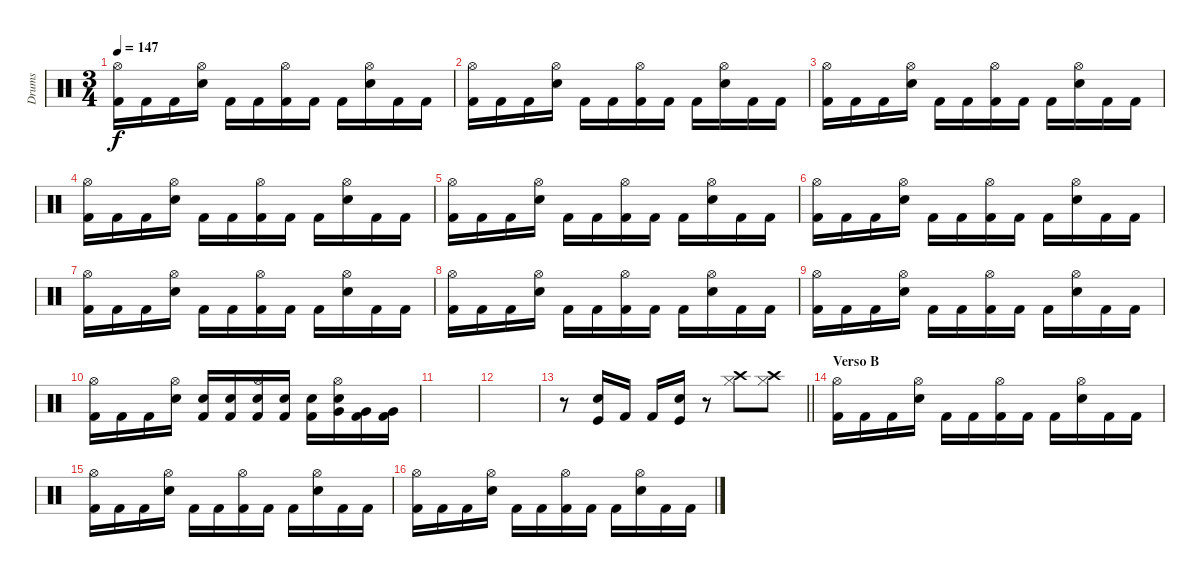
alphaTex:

\track ("Drums" "Drums") {instrument percussion}
\staff {score}
\articulation defaults
\ts (3 4)
\tempo 147
\clef neutral
\ks c
("Kick (hit) 2" "Hi-Hat (open)").16{dy f} "Kick (hit) 2".16 "Kick (hit) 2".16 ("Snare (hit) 2" "Hi-Hat (open)").16 "Kick (hit) 2".16 "Kick (hit) 2".16 ("Kick (hit) 2" "Hi-Hat (open)").16 "Kick (hit) 2".16 "Kick (hit) 2".16 ("Snare (hit) 2" "Hi-Hat (open)").16 "Kick (hit) 2".16 "Kick (hit) 2".16 |
("Kick (hit) 2" "Hi-Hat (open)").16 "Kick (hit) 2".16 "Kick (hit) 2".16 ("Snare (hit) 2" "Hi-Hat (open)").16 "Kick (hit) 2".16 "Kick (hit) 2".16 ("Kick (hit) 2" "Hi-Hat (open)").16 "Kick (hit) 2".16 "Kick (hit) 2".16 ("Snare (hit) 2" "Hi-Hat (open)").16 "Kick (hit) 2".16 "Kick (hit) 2".16 |
("Kick (hit) 2" "Hi-Hat (open)").16 "Kick (hit) 2".16 "Kick (hit) 2".16 ("Snare (hit) 2" "Hi-Hat (open)").16 "Kick (hit) 2".16 "Kick (hit) 2".16 ("Kick (hit) 2" "Hi-Hat (open)").16 "Kick (hit) 2".16 "Kick (hit) 2".16 ("Snare (hit) 2" "Hi-Hat (open)").16 "Kick (hit) 2".16 "Kick (hit) 2".16 |
("Kick (hit) 2" "Hi-Hat (open)").16 "Kick (hit) 2".16 "Kick (hit) 2".16 ("Snare (hit) 2" "Hi-Hat (open)").16 "Kick (hit) 2".16 "Kick (hit) 2".16 ("Kick (hit) 2" "Hi-Hat (open)").16 "Kick (hit) 2".16 "Kick (hit) 2".16 ("Snare (hit) 2" "Hi-Hat (open)").16 "Kick (hit) 2".16 "Kick (hit) 2".16 |
("Kick (hit) 2" "Hi-Hat (open)").16 "Kick (hit) 2".16 "Kick (hit) 2".16 ("Snare (hit) 2" "Hi-Hat (open)").16 "Kick (hit) 2".16 "Kick (hit) 2".16 ("Kick (hit) 2" "Hi-Hat (open)").16 "Kick (hit) 2".16 "Kick (hit) 2".16 ("Snare (hit) 2" "Hi-Hat (open)").16 "Kick (hit) 2".16 "Kick (hit) 2".16 |
("Kick (hit) 2" "Hi-Hat (open)").16 "Kick (hit) 2".16 "Kick (hit) 2".16 ("Snare (hit) 2" "Hi-Hat (open)").16 "Kick (hit) 2".16 "Kick (hit) 2".16 ("Kick (hit) 2" "Hi-Hat (open)").16 "Kick (hit) 2".16 "Kick (hit) 2".16 ("Snare (hit) 2" "Hi-Hat (open)").16 "Kick (hit) 2".16 "Kick (hit) 2".16 |
("Kick (hit) 2" "Hi-Hat (open)").16 "Kick (hit) 2".16 "Kick (hit) 2".16 ("Snare (hit) 2" "Hi-Hat (open)").16 "Kick (hit) 2".16 "Kick (hit) 2".16 ("Kick (hit) 2" "Hi-Hat (open)").16 "Kick (hit) 2".16 "Kick (hit) 2".16 ("Snare (hit) 2" "Hi-Hat (open)").16 "Kick (hit) 2".16 "Kick (hit) 2".16 |
("Kick (hit) 2" "Hi-Hat (open)").16 "Kick (hit) 2".16 "Kick (hit) 2".16 ("Snare (hit) 2" "Hi-Hat (open)").16 "Kick (hit) 2".16 "Kick (hit) 2".16 ("Kick (hit) 2" "Hi-Hat (open)").16 "Kick (hit) 2".16 "Kick (hit) 2".16 ("Snare (hit) 2" "Hi-Hat (open)").16 "Kick (hit) 2".16 "Kick (hit) 2".16 |
("Kick (hit) 2" "Hi-Hat (open)").16 "Kick (hit) 2".16 "Kick (hit) 2".16 ("Snare (hit) 2" "Hi-Hat (open)").16 "Kick (hit) 2".16 "Kick (hit) 2".16 ("Kick (hit) 2" "Hi-Hat (open)").16 "Kick (hit) 2".16 "Kick (hit) 2".16 ("Snare (hit) 2" "Hi-Hat (open)").16 "Kick (hit) 2".16 "Kick (hit) 2".16 |
("Kick (hit) 2" "Hi-Hat (open)").16 "Kick (hit) 2".16 "Kick (hit) 2".16 ("Snare (hit) 2" "Hi-Hat (open)").16 ("Kick (hit) 2" "Snare (hit) 2").16 ("Kick (hit) 2" "Snare (hit) 2").16 ("Kick (hit) 2" "Snare (hit) 2" "Hi-Hat (open)").16 ("Kick (hit) 2" "Snare (hit) 2").16 ("Kick (hit) 2" "Snare (hit) 2").16 ("Snare (hit) 2" "Very Low Tom (hit)" "Hi-Hat (open)").16 ("Kick (hit) 2" "Very Low Tom (hit)").16 ("Kick (hit) 2" "Very Low Tom (hit)").16 |
|
|
\barLineRight lightlight
r.8 ("Snare (hit) 2" "Kick (hit)").16 "Kick (hit) 2".16 "Kick (hit) 2".16 ("Snare (hit) 2" "Kick (hit)").16 r.8 ("Hi-Hat (closed)" "Crash high (hit)").8 ("Hi-Hat (closed)" "Crash high (hit)").8 |
\section ("" "Verso B")
("Kick (hit) 2" "Hi-Hat (open)").16 "Kick (hit) 2".16 "Kick (hit) 2".16 ("Snare (hit) 2" "Hi-Hat (open)").16 "Kick (hit) 2".16 "Kick (hit) 2".16 ("Kick (hit) 2" "Hi-Hat (open)").16 "Kick (hit) 2".16 "Kick (hit) 2".16 ("Snare (hit) 2" "Hi-Hat (open)").16 "Kick (hit) 2".16 "Kick (hit) 2".16 |
("Kick (hit) 2" "Hi-Hat (open)").16 "Kick (hit) 2".16 "Kick (hit) 2".16 ("Snare (hit) 2" "Hi-Hat (open)").16 "Kick (hit) 2".16 "Kick (hit) 2".16 ("Kick (hit) 2" "Hi-Hat (open)").16 "Kick (hit) 2".16 "Kick (hit) 2".16 ("Snare (hit) 2" "Hi-Hat (open)").16 "Kick (hit) 2".16 "Kick (hit) 2".16 |
("Kick (hit) 2" "Hi-Hat (open)").16 "Kick (hit) 2".16 "Kick (hit) 2".16 ("Snare (hit) 2" "Hi-Hat (open)").16 "Kick (hit) 2".16 "Kick (hit) 2".16 ("Kick (hit) 2" "Hi-Hat (open)").16 "Kick (hit) 2".16 "Kick (hit) 2".16 ("Snare (hit) 2" "Hi-Hat (open)").16 "Kick (hit) 2".16 "Kick (hit) 2".16
